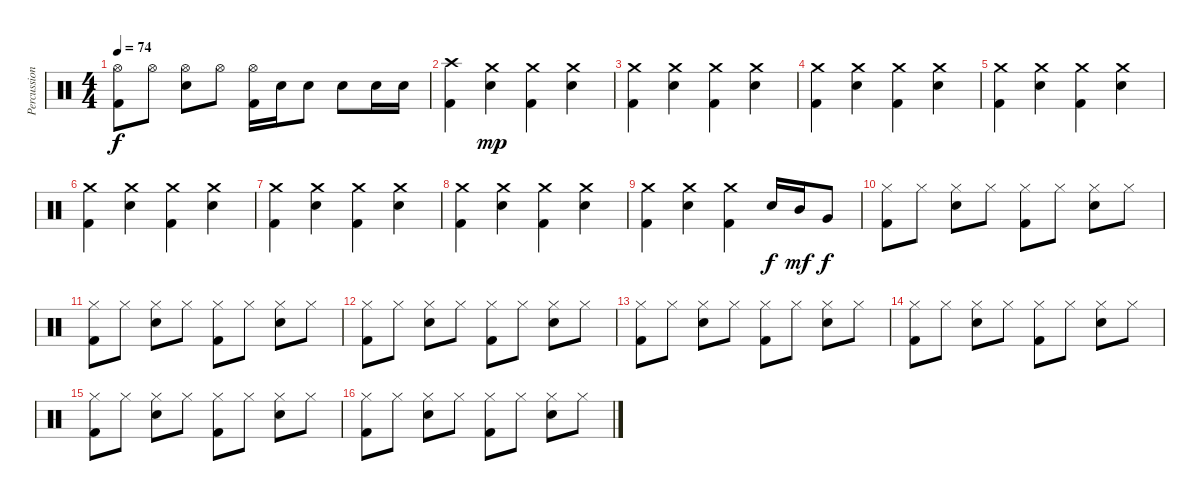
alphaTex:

\track ("Percussions" "Percussion") {instrument percussion}
\staff {score}
\articulation defaults
\ts (4 4)
\tempo 74
\clef neutral
\ks c
("Hi-Hat (open)" "Kick (hit) 2").8{dy f} "Hi-Hat (open)".8 ("Hi-Hat (open)" "Electric Snare (hit)").8 "Hi-Hat (open)".8 ("Hi-Hat (open)" "Kick (hit) 2").16 "Electric Snare (hit)".16 "Electric Snare (hit)".8 "Electric Snare (hit)".8 "Electric Snare (hit)".16 "Electric Snare (hit)".16 |
("Crash high (hit)" "Kick (hit) 2").4 ("Crash medium (hit)" "Electric Snare (hit)").4{dy mp} ("Crash medium (hit)" "Kick (hit) 2").4 ("Crash medium (hit)" "Electric Snare (hit)").4 |
("Crash medium (hit)" "Kick (hit) 2").4 ("Crash medium (hit)" "Electric Snare (hit)").4 ("Crash medium (hit)" "Kick (hit) 2").4 ("Crash medium (hit)" "Electric Snare (hit)").4 |
("Crash medium (hit)" "Kick (hit) 2").4 ("Crash medium (hit)" "Electric Snare (hit)").4 ("Crash medium (hit)" "Kick (hit) 2").4 ("Crash medium (hit)" "Electric Snare (hit)").4 |
("Crash medium (hit)" "Kick (hit) 2").4 ("Crash medium (hit)" "Electric Snare (hit)").4 ("Crash medium (hit)" "Kick (hit) 2").4 ("Crash medium (hit)" "Electric Snare (hit)").4 |
("Crash medium (hit)" "Kick (hit) 2").4 ("Crash medium (hit)" "Electric Snare (hit)").4 ("Crash medium (hit)" "Kick (hit) 2").4 ("Crash medium (hit)" "Electric Snare (hit)").4 |
("Crash medium (hit)" "Kick (hit) 2").4 ("Crash medium (hit)" "Electric Snare (hit)").4 ("Crash medium (hit)" "Kick (hit) 2").4 ("Crash medium (hit)" "Electric Snare (hit)").4 |
("Crash medium (hit)" "Kick (hit) 2").4 ("Crash medium (hit)" "Electric Snare (hit)").4 ("Crash medium (hit)" "Kick (hit) 2").4 ("Crash medium (hit)" "Electric Snare (hit)").4 |
("Crash medium (hit)" "Kick (hit) 2").4 ("Crash medium (hit)" "Electric Snare (hit)").4 ("Crash medium (hit)" "Kick (hit) 2").4 "Electric Snare (hit)".16{dy f} "Mid Tom (hit)".16{dy mf} "Very Low Tom (hit)".8{dy f} |
("Hi-Hat (closed)" "Kick (hit) 2").8 "Hi-Hat (closed)".8 ("Hi-Hat (closed)" "Electric Snare (hit)").8 "Hi-Hat (closed)".8 ("Hi-Hat (closed)" "Kick (hit) 2").8 "Hi-Hat (closed)".8 ("Hi-Hat (closed)" "Electric Snare (hit)").8 "Hi-Hat (closed)".8 |
("Hi-Hat (closed)" "Kick (hit) 2").8 "Hi-Hat (closed)".8 ("Hi-Hat (closed)" "Electric Snare (hit)").8 "Hi-Hat (closed)".8 ("Hi-Hat (closed)" "Kick (hit) 2").8 "Hi-Hat (closed)".8 ("Hi-Hat (closed)" "Electric Snare (hit)").8 "Hi-Hat (closed)".8 |
("Hi-Hat (closed)" "Kick (hit) 2").8 "Hi-Hat (closed)".8 ("Hi-Hat (closed)" "Electric Snare (hit)").8 "Hi-Hat (closed)".8 ("Hi-Hat (closed)" "Kick (hit) 2").8 "Hi-Hat (closed)".8 ("Hi-Hat (closed)" "Electric Snare (hit)").8 "Hi-Hat (closed)".8 |
("Hi-Hat (closed)" "Kick (hit) 2").8 "Hi-Hat (closed)".8 ("Hi-Hat (closed)" "Electric Snare (hit)").8 "Hi-Hat (closed)".8 ("Hi-Hat (closed)" "Kick (hit) 2").8 "Hi-Hat (closed)".8 ("Hi-Hat (closed)" "Electric Snare (hit)").8 "Hi-Hat (closed)".8 |
("Hi-Hat (closed)" "Kick (hit) 2").8 "Hi-Hat (closed)".8 ("Hi-Hat (closed)" "Electric Snare (hit)").8 "Hi-Hat (closed)".8 ("Hi-Hat (closed)" "Kick (hit) 2").8 "Hi-Hat (closed)".8 ("Hi-Hat (closed)" "Electric Snare (hit)").8 "Hi-Hat (closed)".8 |
("Hi-Hat (closed)" "Kick (hit) 2").8 "Hi-Hat (closed)".8 ("Hi-Hat (closed)" "Electric Snare (hit)").8 "Hi-Hat (closed)".8 ("Hi-Hat (closed)" "Kick (hit) 2").8 "Hi-Hat (closed)".8 ("Hi-Hat (closed)" "Electric Snare (hit)").8 "Hi-Hat (closed)".8 |
("Hi-Hat (closed)" "Kick (hit) 2").8 "Hi-Hat (closed)".8 ("Hi-Hat (closed)" "Electric Snare (hit)").8 "Hi-Hat (closed)".8 ("Hi-Hat (closed)" "Kick (hit) 2").8 "Hi-Hat (closed)".8 ("Hi-Hat (closed)" "Electric Snare (hit)").8 "Hi-Hat (closed)".8
